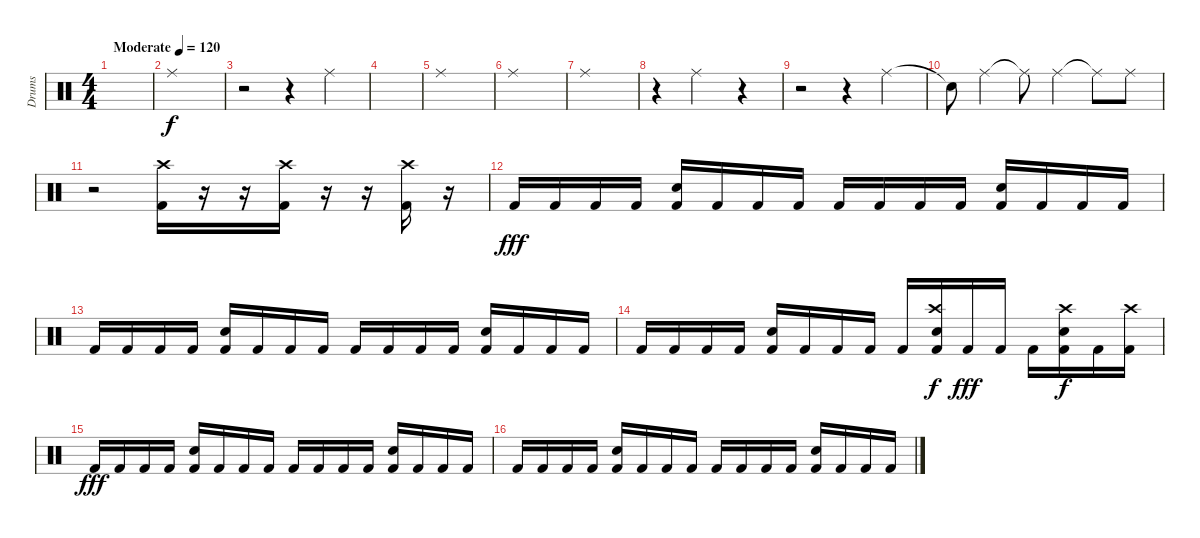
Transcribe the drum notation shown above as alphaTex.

\track ("Drums" "Drums") {instrument percussion}
\staff {score}
\articulation defaults
\ts (4 4)
\tempo (120 "Moderate")
\clef neutral
\ks c
|
"Ride (middle)".1 |
r.2 r.4 "Ride (middle)".4 |
|
"Ride (middle)".1 |
"Ride (middle)".1 |
"Ride (middle)".1 |
r.4 "Ride (middle)".2 r.4 |
r.2 r.4 "Ride (middle)".4 |
"Snare (hit)"{t}.8 "Ride (middle)".4 "Ride (middle)"{t}.8 "Ride (middle)".4 "Ride (middle)"{t}.8 "Ride (middle)".8 |
r.2 ("Crash high (hit)" "Kick (hit) 2").16 r.16 r.16 ("Crash high (hit)" "Kick (hit) 2").16 r.16 r.16 ("Crash high (hit)" "Kick (hit) 2").16 r.16 |
"Kick (hit) 2".16{dy fff} "Kick (hit) 2".16 "Kick (hit) 2".16 "Kick (hit) 2".16 ("Snare (hit) 2" "Kick (hit) 2").16 "Kick (hit) 2".16 "Kick (hit) 2".16 "Kick (hit) 2".16 "Kick (hit) 2".16 "Kick (hit) 2".16 "Kick (hit) 2".16 "Kick (hit) 2".16 ("Snare (hit) 2" "Kick (hit) 2").16 "Kick (hit) 2".16 "Kick (hit) 2".16 "Kick (hit) 2".16 |
"Kick (hit) 2".16 "Kick (hit) 2".16 "Kick (hit) 2".16 "Kick (hit) 2".16 ("Snare (hit) 2" "Kick (hit) 2").16 "Kick (hit) 2".16 "Kick (hit) 2".16 "Kick (hit) 2".16 "Kick (hit) 2".16 "Kick (hit) 2".16 "Kick (hit) 2".16 "Kick (hit) 2".16 ("Snare (hit) 2" "Kick (hit) 2").16 "Kick (hit) 2".16 "Kick (hit) 2".16 "Kick (hit) 2".16 |
"Kick (hit) 2".16 "Kick (hit) 2".16 "Kick (hit) 2".16 "Kick (hit) 2".16 ("Snare (hit) 2" "Kick (hit) 2").16 "Kick (hit) 2".16 "Kick (hit) 2".16 "Kick (hit) 2".16 "Kick (hit) 2".16 ("Crash high (hit)" "Snare (hit) 2" "Kick (hit) 2").16{dy f} "Kick (hit) 2".16{dy fff} "Kick (hit) 2".16 "Kick (hit) 2".16 ("Crash high (hit)" "Snare (hit) 2" "Kick (hit) 2").16{dy f} "Kick (hit) 2".16 ("Crash high (hit)" "Kick (hit) 2").16 |
"Kick (hit) 2".16{dy fff} "Kick (hit) 2".16 "Kick (hit) 2".16 "Kick (hit) 2".16 ("Snare (hit) 2" "Kick (hit) 2").16 "Kick (hit) 2".16 "Kick (hit) 2".16 "Kick (hit) 2".16 "Kick (hit) 2".16 "Kick (hit) 2".16 "Kick (hit) 2".16 "Kick (hit) 2".16 ("Snare (hit) 2" "Kick (hit) 2").16 "Kick (hit) 2".16 "Kick (hit) 2".16 "Kick (hit) 2".16 |
"Kick (hit) 2".16 "Kick (hit) 2".16 "Kick (hit) 2".16 "Kick (hit) 2".16 ("Snare (hit) 2" "Kick (hit) 2").16 "Kick (hit) 2".16 "Kick (hit) 2".16 "Kick (hit) 2".16 "Kick (hit) 2".16 "Kick (hit) 2".16 "Kick (hit) 2".16 "Kick (hit) 2".16 ("Snare (hit) 2" "Kick (hit) 2").16 "Kick (hit) 2".16 "Kick (hit) 2".16 "Kick (hit) 2".16
